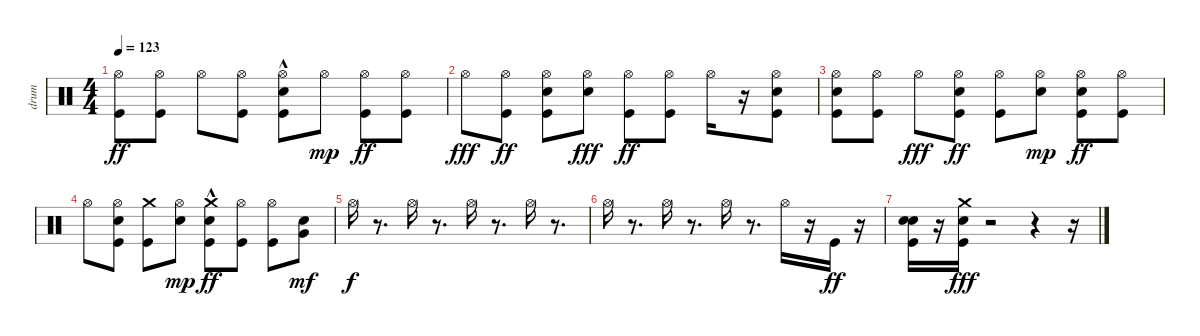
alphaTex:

\track ("drum" "drum") {instrument percussion}
\staff {score}
\articulation defaults
\ts (4 4)
\tempo 123
\clef neutral
\ks c
("Hi-Hat (open)" "Kick (hit)").8{dy ff} ("Hi-Hat (open)" "Kick (hit)").8 "Hi-Hat (open)".8 ("Hi-Hat (open)" "Kick (hit)").8 ("Hi-Hat (open)" "Electric Snare (hit)"{hac} "Kick (hit)").8 "Hi-Hat (open)".8{dy mp} ("Hi-Hat (open)" "Kick (hit)").8{dy ff} ("Hi-Hat (open)" "Kick (hit)").8 |
"Hi-Hat (open)".8{dy fff} ("Hi-Hat (open)" "Kick (hit)").8{dy ff} ("Electric Snare (hit)" "Hi-Hat (open)" "Kick (hit)").8 ("Hi-Hat (open)" "Electric Snare (hit)").8{dy fff} ("Hi-Hat (open)" "Kick (hit)").8{dy ff} ("Hi-Hat (open)" "Kick (hit)").8 "Hi-Hat (open)".16 r.16 ("Hi-Hat (open)" "Electric Snare (hit)" "Kick (hit)").8 |
("Hi-Hat (open)" "Electric Snare (hit)" "Kick (hit)").8 ("Hi-Hat (open)" "Kick (hit)").8 "Hi-Hat (open)".8{dy fff} ("Electric Snare (hit)" "Hi-Hat (open)" "Kick (hit)").8{dy ff} ("Hi-Hat (open)" "Kick (hit)").8 ("Hi-Hat (open)" "Electric Snare (hit)").8{dy mp} ("Hi-Hat (open)" "Electric Snare (hit)" "Kick (hit)").8{dy ff} ("Hi-Hat (open)" "Kick (hit)").8 |
"Hi-Hat (open)".8 ("Electric Snare (hit)" "Hi-Hat (open)" "Kick (hit)").8 ("Crash medium (hit)" "Kick (hit)").8 ("Hi-Hat (open)" "Electric Snare (hit)").8{dy mp} ("Crash medium (hit)" "Electric Snare (hit)"{hac} "Kick (hit)").8{dy ff} ("Hi-Hat (open)" "Kick (hit)").8 ("Hi-Hat (open)" "Kick (hit)").8 ("Very Low Tom (hit)" "Electric Snare (hit)").8{dy mf} |
"Hi-Hat (open)".16{dy f} r.8{d} "Hi-Hat (open)".16 r.8{d} "Hi-Hat (open)".16 r.8{d} "Hi-Hat (open)".16 r.8{d} |
"Hi-Hat (open)".16 r.8{d} "Hi-Hat (open)".16 r.8{d} "Hi-Hat (open)".16 r.8{d} "Hi-Hat (open)".16 r.16 "Kick (hit)".16{dy ff} r.16 |
("Electric Snare (hit)" "Kick (hit)" "Electric Snare (hit)").16 r.16 ("Crash medium (hit)" "Electric Snare (hit)" "Kick (hit)").16{dy fff} r.2 r.4 r.16
